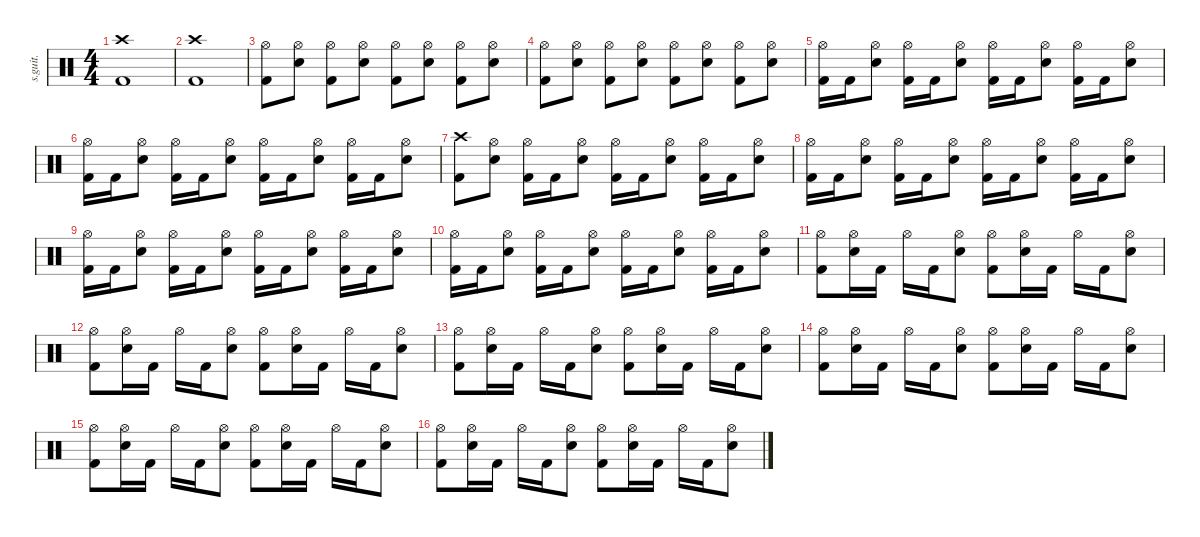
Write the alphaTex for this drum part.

\defaultSystemsLayout 4
\hideDynamics
\bracketExtendMode nobrackets
\track ("" "s.guit.") {instrument percussion}
\staff {score}
\articulation defaults
\ts (4 4)
\tempo (160 hide)
\clef neutral
\ks c
("Crash high (hit)" "Kick (hit) 2").1{dy f} |
("Crash high (hit)" "Kick (hit) 2").1 |
("Hi-Hat (open)" "Kick (hit) 2").8 ("Hi-Hat (open)" "Snare (hit) 2").8 ("Hi-Hat (open)" "Kick (hit) 2").8 ("Hi-Hat (open)" "Snare (hit) 2").8 ("Hi-Hat (open)" "Kick (hit) 2").8 ("Hi-Hat (open)" "Snare (hit) 2").8 ("Hi-Hat (open)" "Kick (hit) 2").8 ("Hi-Hat (open)" "Snare (hit) 2").8 |
("Hi-Hat (open)" "Kick (hit) 2").8 ("Hi-Hat (open)" "Snare (hit) 2").8 ("Hi-Hat (open)" "Kick (hit) 2").8 ("Hi-Hat (open)" "Snare (hit) 2").8 ("Hi-Hat (open)" "Kick (hit) 2").8 ("Hi-Hat (open)" "Snare (hit) 2").8 ("Hi-Hat (open)" "Kick (hit) 2").8 ("Hi-Hat (open)" "Snare (hit) 2").8 |
("Hi-Hat (open)" "Kick (hit) 2").16 "Kick (hit) 2".16 ("Hi-Hat (open)" "Snare (hit) 2").8 ("Hi-Hat (open)" "Kick (hit) 2").16 "Kick (hit) 2".16 ("Hi-Hat (open)" "Snare (hit) 2").8 ("Hi-Hat (open)" "Kick (hit) 2").16 "Kick (hit) 2".16 ("Hi-Hat (open)" "Snare (hit) 2").8 ("Hi-Hat (open)" "Kick (hit) 2").16 "Kick (hit) 2".16 ("Hi-Hat (open)" "Snare (hit) 2").8 |
("Hi-Hat (open)" "Kick (hit) 2").16 "Kick (hit) 2".16 ("Hi-Hat (open)" "Snare (hit) 2").8 ("Hi-Hat (open)" "Kick (hit) 2").16 "Kick (hit) 2".16 ("Hi-Hat (open)" "Snare (hit) 2").8 ("Hi-Hat (open)" "Kick (hit) 2").16 "Kick (hit) 2".16 ("Hi-Hat (open)" "Snare (hit) 2").8 ("Hi-Hat (open)" "Kick (hit) 2").16 "Kick (hit) 2".16 ("Hi-Hat (open)" "Snare (hit) 2").8 |
("Crash high (hit)" "Kick (hit) 2").8 ("Hi-Hat (open)" "Snare (hit) 2").8 ("Hi-Hat (open)" "Kick (hit) 2").16 "Kick (hit) 2".16 ("Hi-Hat (open)" "Snare (hit) 2").8 ("Hi-Hat (open)" "Kick (hit) 2").16 "Kick (hit) 2".16 ("Hi-Hat (open)" "Snare (hit) 2").8 ("Hi-Hat (open)" "Kick (hit) 2").16 "Kick (hit) 2".16 ("Hi-Hat (open)" "Snare (hit) 2").8 |
("Hi-Hat (open)" "Kick (hit) 2").16 "Kick (hit) 2".16 ("Hi-Hat (open)" "Snare (hit) 2").8 ("Hi-Hat (open)" "Kick (hit) 2").16 "Kick (hit) 2".16 ("Hi-Hat (open)" "Snare (hit) 2").8 ("Hi-Hat (open)" "Kick (hit) 2").16 "Kick (hit) 2".16 ("Hi-Hat (open)" "Snare (hit) 2").8 ("Hi-Hat (open)" "Kick (hit) 2").16 "Kick (hit) 2".16 ("Hi-Hat (open)" "Snare (hit) 2").8 |
("Hi-Hat (open)" "Kick (hit) 2").16 "Kick (hit) 2".16 ("Hi-Hat (open)" "Snare (hit) 2").8 ("Hi-Hat (open)" "Kick (hit) 2").16 "Kick (hit) 2".16 ("Hi-Hat (open)" "Snare (hit) 2").8 ("Hi-Hat (open)" "Kick (hit) 2").16 "Kick (hit) 2".16 ("Hi-Hat (open)" "Snare (hit) 2").8 ("Hi-Hat (open)" "Kick (hit) 2").16 "Kick (hit) 2".16 ("Hi-Hat (open)" "Snare (hit) 2").8 |
("Hi-Hat (open)" "Kick (hit) 2").16 "Kick (hit) 2".16 ("Hi-Hat (open)" "Snare (hit) 2").8 ("Hi-Hat (open)" "Kick (hit) 2").16 "Kick (hit) 2".16 ("Hi-Hat (open)" "Snare (hit) 2").8 ("Hi-Hat (open)" "Kick (hit) 2").16 "Kick (hit) 2".16 ("Hi-Hat (open)" "Snare (hit) 2").8 ("Hi-Hat (open)" "Kick (hit) 2").16 "Kick (hit) 2".16 ("Hi-Hat (open)" "Snare (hit) 2").8 |
("Hi-Hat (open)" "Kick (hit) 2").8 ("Hi-Hat (open)" "Snare (hit) 2").16 "Kick (hit) 2".16 "Hi-Hat (open)".16 "Kick (hit) 2".16 ("Hi-Hat (open)" "Snare (hit) 2").8 ("Hi-Hat (open)" "Kick (hit) 2").8 ("Hi-Hat (open)" "Snare (hit) 2").16 "Kick (hit) 2".16 "Hi-Hat (open)".16 "Kick (hit) 2".16 ("Hi-Hat (open)" "Snare (hit) 2").8 |
("Hi-Hat (open)" "Kick (hit) 2").8 ("Hi-Hat (open)" "Snare (hit) 2").16 "Kick (hit) 2".16 "Hi-Hat (open)".16 "Kick (hit) 2".16 ("Hi-Hat (open)" "Snare (hit) 2").8 ("Hi-Hat (open)" "Kick (hit) 2").8 ("Hi-Hat (open)" "Snare (hit) 2").16 "Kick (hit) 2".16 "Hi-Hat (open)".16 "Kick (hit) 2".16 ("Hi-Hat (open)" "Snare (hit) 2").8 |
("Hi-Hat (open)" "Kick (hit) 2").8 ("Hi-Hat (open)" "Snare (hit) 2").16 "Kick (hit) 2".16 "Hi-Hat (open)".16 "Kick (hit) 2".16 ("Hi-Hat (open)" "Snare (hit) 2").8 ("Hi-Hat (open)" "Kick (hit) 2").8 ("Hi-Hat (open)" "Snare (hit) 2").16 "Kick (hit) 2".16 "Hi-Hat (open)".16 "Kick (hit) 2".16 ("Hi-Hat (open)" "Snare (hit) 2").8 |
("Hi-Hat (open)" "Kick (hit) 2").8 ("Hi-Hat (open)" "Snare (hit) 2").16 "Kick (hit) 2".16 "Hi-Hat (open)".16 "Kick (hit) 2".16 ("Hi-Hat (open)" "Snare (hit) 2").8 ("Hi-Hat (open)" "Kick (hit) 2").8 ("Hi-Hat (open)" "Snare (hit) 2").16 "Kick (hit) 2".16 "Hi-Hat (open)".16 "Kick (hit) 2".16 ("Hi-Hat (open)" "Snare (hit) 2").8 |
("Hi-Hat (open)" "Kick (hit) 2").8 ("Hi-Hat (open)" "Snare (hit) 2").16 "Kick (hit) 2".16 "Hi-Hat (open)".16 "Kick (hit) 2".16 ("Hi-Hat (open)" "Snare (hit) 2").8 ("Hi-Hat (open)" "Kick (hit) 2").8 ("Hi-Hat (open)" "Snare (hit) 2").16 "Kick (hit) 2".16 "Hi-Hat (open)".16 "Kick (hit) 2".16 ("Hi-Hat (open)" "Snare (hit) 2").8 |
("Hi-Hat (open)" "Kick (hit) 2").8 ("Hi-Hat (open)" "Snare (hit) 2").16 "Kick (hit) 2".16 "Hi-Hat (open)".16 "Kick (hit) 2".16 ("Hi-Hat (open)" "Snare (hit) 2").8 ("Hi-Hat (open)" "Kick (hit) 2").8 ("Hi-Hat (open)" "Snare (hit) 2").16 "Kick (hit) 2".16 "Hi-Hat (open)".16 "Kick (hit) 2".16 ("Hi-Hat (open)" "Snare (hit) 2").8
